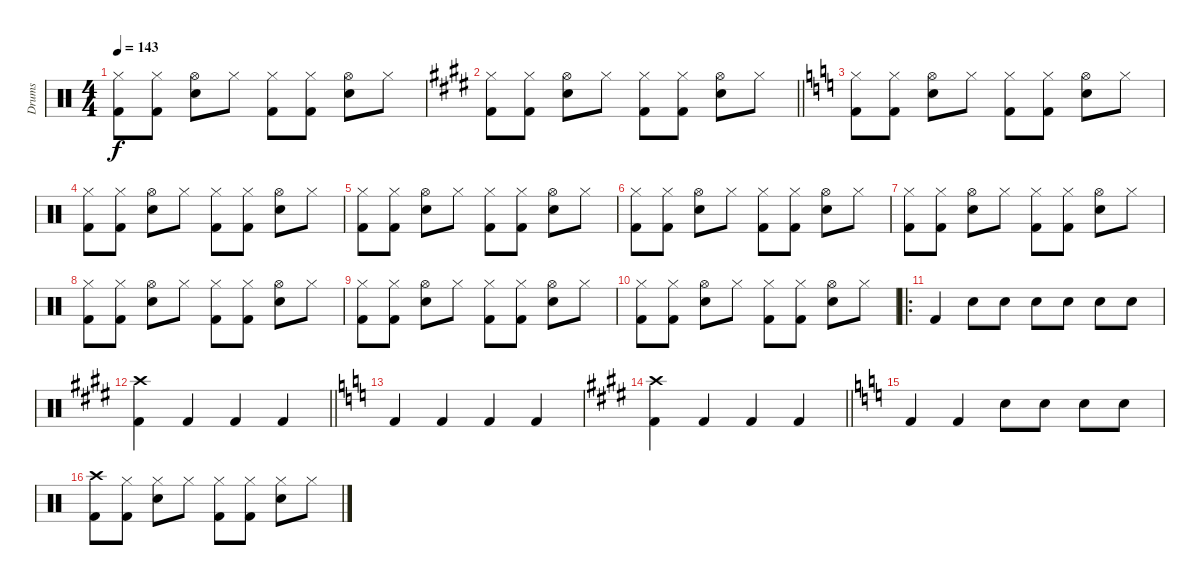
\track ("Drums" "Drums") {instrument percussion}
\staff {score}
\articulation defaults
\ts (4 4)
\tempo 143
\clef neutral
\ks c
("Hi-Hat (closed)" "Kick (hit) 2").8{dy f} ("Hi-Hat (closed)" "Kick (hit) 2").8 ("Hi-Hat (open)" "Electric Snare (hit)").8 "Hi-Hat (closed)".8 ("Hi-Hat (closed)" "Kick (hit) 2").8 ("Hi-Hat (closed)" "Kick (hit) 2").8 ("Hi-Hat (open)" "Electric Snare (hit)").8 "Hi-Hat (closed)".8 |
\barLineRight lightlight
\ks c#minor
("Hi-Hat (closed)" "Kick (hit) 2").8 ("Hi-Hat (closed)" "Kick (hit) 2").8 ("Hi-Hat (open)" "Electric Snare (hit)").8 "Hi-Hat (closed)".8 ("Hi-Hat (closed)" "Kick (hit) 2").8 ("Hi-Hat (closed)" "Kick (hit) 2").8 ("Hi-Hat (open)" "Electric Snare (hit)").8 "Hi-Hat (closed)".8 |
\ks c
("Hi-Hat (closed)" "Kick (hit) 2").8 ("Hi-Hat (closed)" "Kick (hit) 2").8 ("Hi-Hat (open)" "Electric Snare (hit)").8 "Hi-Hat (closed)".8 ("Hi-Hat (closed)" "Kick (hit) 2").8 ("Hi-Hat (closed)" "Kick (hit) 2").8 ("Hi-Hat (open)" "Electric Snare (hit)").8 "Hi-Hat (closed)".8 |
("Hi-Hat (closed)" "Kick (hit) 2").8 ("Hi-Hat (closed)" "Kick (hit) 2").8 ("Hi-Hat (open)" "Electric Snare (hit)").8 "Hi-Hat (closed)".8 ("Hi-Hat (closed)" "Kick (hit) 2").8 ("Hi-Hat (closed)" "Kick (hit) 2").8 ("Hi-Hat (open)" "Electric Snare (hit)").8 "Hi-Hat (closed)".8 |
("Hi-Hat (closed)" "Kick (hit) 2").8 ("Hi-Hat (closed)" "Kick (hit) 2").8 ("Hi-Hat (open)" "Electric Snare (hit)").8 "Hi-Hat (closed)".8 ("Hi-Hat (closed)" "Kick (hit) 2").8 ("Hi-Hat (closed)" "Kick (hit) 2").8 ("Hi-Hat (open)" "Electric Snare (hit)").8 "Hi-Hat (closed)".8 |
("Hi-Hat (closed)" "Kick (hit) 2").8 ("Hi-Hat (closed)" "Kick (hit) 2").8 ("Hi-Hat (open)" "Electric Snare (hit)").8 "Hi-Hat (closed)".8 ("Hi-Hat (closed)" "Kick (hit) 2").8 ("Hi-Hat (closed)" "Kick (hit) 2").8 ("Hi-Hat (open)" "Electric Snare (hit)").8 "Hi-Hat (closed)".8 |
("Hi-Hat (closed)" "Kick (hit) 2").8 ("Hi-Hat (closed)" "Kick (hit) 2").8 ("Hi-Hat (open)" "Electric Snare (hit)").8 "Hi-Hat (closed)".8 ("Hi-Hat (closed)" "Kick (hit) 2").8 ("Hi-Hat (closed)" "Kick (hit) 2").8 ("Hi-Hat (open)" "Electric Snare (hit)").8 "Hi-Hat (closed)".8 |
("Hi-Hat (closed)" "Kick (hit) 2").8 ("Hi-Hat (closed)" "Kick (hit) 2").8 ("Hi-Hat (open)" "Electric Snare (hit)").8 "Hi-Hat (closed)".8 ("Hi-Hat (closed)" "Kick (hit) 2").8 ("Hi-Hat (closed)" "Kick (hit) 2").8 ("Hi-Hat (open)" "Electric Snare (hit)").8 "Hi-Hat (closed)".8 |
("Hi-Hat (closed)" "Kick (hit) 2").8 ("Hi-Hat (closed)" "Kick (hit) 2").8 ("Hi-Hat (open)" "Electric Snare (hit)").8 "Hi-Hat (closed)".8 ("Hi-Hat (closed)" "Kick (hit) 2").8 ("Hi-Hat (closed)" "Kick (hit) 2").8 ("Hi-Hat (open)" "Electric Snare (hit)").8 "Hi-Hat (closed)".8 |
("Hi-Hat (closed)" "Kick (hit) 2").8 ("Hi-Hat (closed)" "Kick (hit) 2").8 ("Hi-Hat (open)" "Electric Snare (hit)").8 "Hi-Hat (closed)".8 ("Hi-Hat (closed)" "Kick (hit) 2").8 ("Hi-Hat (closed)" "Kick (hit) 2").8 ("Hi-Hat (open)" "Electric Snare (hit)").8 "Hi-Hat (closed)".8 |
\ro "Kick (hit) 2".4 "Snare (hit) 2".8 "Snare (hit) 2".8 "Snare (hit) 2".8 "Electric Snare (hit)".8 "Electric Snare (hit)".8 "Electric Snare (hit)".8
|
\barLineRight lightlight
\ks c#minor
("Crash high (hit)" "Kick (hit) 2").4 "Kick (hit) 2".4 "Kick (hit) 2".4 "Kick (hit) 2".4 |
\ks c "Kick (hit) 2".4 "Kick (hit) 2".4 "Kick (hit) 2".4 "Kick (hit) 2".4
|
\barLineRight lightlight
\ks c#minor
("Crash high (hit)" "Kick (hit) 2").4 "Kick (hit) 2".4 "Kick (hit) 2".4 "Kick (hit) 2".4 |
\ks c "Kick (hit) 2".4 "Kick (hit) 2".4 "Snare (hit) 2".8 "Snare (hit) 2".8 "Electric Snare (hit)".8 "Electric Snare (hit)".8
|
("Crash high (hit)" "Kick (hit) 2").8 ("Hi-Hat (closed)" "Kick (hit) 2").8 ("Hi-Hat (closed)" "Electric Snare (hit)").8 "Hi-Hat (closed)".8 ("Hi-Hat (closed)" "Kick (hit) 2").8 ("Hi-Hat (closed)" "Kick (hit) 2").8 ("Hi-Hat (closed)" "Electric Snare (hit)").8 "Hi-Hat (closed)".8
